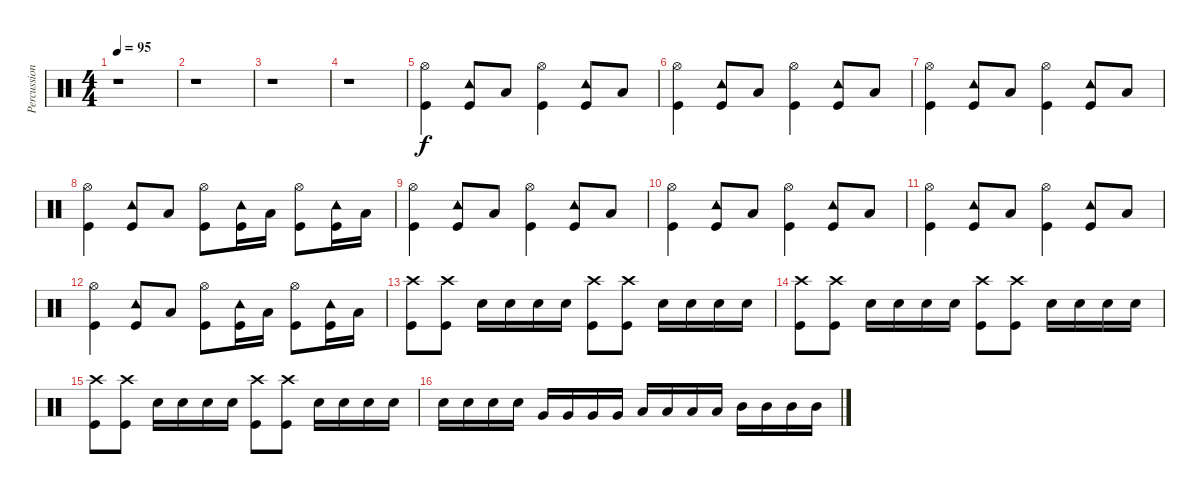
\track ("Percussion" "Percussion") {instrument percussion}
\staff {score}
\articulation defaults
\ts (4 4)
\tempo 95
\clef neutral
\ks c
r.1{dy f} |
r.1 |
r.1 |
r.1 |
("Hi-Hat (open)" "Kick (hit)").4 ("Tambourine (hit)" "Kick (hit)").8 "Low Tom (hit)".8 ("Hi-Hat (open)" "Kick (hit)").4 ("Tambourine (hit)" "Kick (hit)").8 "Low Tom (hit)".8 |
("Hi-Hat (open)" "Kick (hit)").4 ("Tambourine (hit)" "Kick (hit)").8 "Low Tom (hit)".8 ("Hi-Hat (open)" "Kick (hit)").4 ("Tambourine (hit)" "Kick (hit)").8 "Low Tom (hit)".8 |
("Hi-Hat (open)" "Kick (hit)").4 ("Tambourine (hit)" "Kick (hit)").8 "Low Tom (hit)".8 ("Hi-Hat (open)" "Kick (hit)").4 ("Tambourine (hit)" "Kick (hit)").8 "Low Tom (hit)".8 |
("Hi-Hat (open)" "Kick (hit)").4 ("Tambourine (hit)" "Kick (hit)").8 "Low Tom (hit)".8 ("Hi-Hat (open)" "Kick (hit)").8 ("Tambourine (hit)" "Kick (hit)").16 "Low Tom (hit)".16 ("Hi-Hat (open)" "Kick (hit)").8 ("Tambourine (hit)" "Kick (hit)").16 "Low Tom (hit)".16 |
("Hi-Hat (open)" "Kick (hit)").4 ("Tambourine (hit)" "Kick (hit)").8 "Low Tom (hit)".8 ("Hi-Hat (open)" "Kick (hit)").4 ("Tambourine (hit)" "Kick (hit)").8 "Low Tom (hit)".8 |
("Hi-Hat (open)" "Kick (hit)").4 ("Tambourine (hit)" "Kick (hit)").8 "Low Tom (hit)".8 ("Hi-Hat (open)" "Kick (hit)").4 ("Tambourine (hit)" "Kick (hit)").8 "Low Tom (hit)".8 |
("Hi-Hat (open)" "Kick (hit)").4 ("Tambourine (hit)" "Kick (hit)").8 "Low Tom (hit)".8 ("Hi-Hat (open)" "Kick (hit)").4 ("Tambourine (hit)" "Kick (hit)").8 "Low Tom (hit)".8 |
("Hi-Hat (open)" "Kick (hit)").4 ("Tambourine (hit)" "Kick (hit)").8 "Low Tom (hit)".8 ("Hi-Hat (open)" "Kick (hit)").8 ("Tambourine (hit)" "Kick (hit)").16 "Low Tom (hit)".16 ("Hi-Hat (open)" "Kick (hit)").8 ("Tambourine (hit)" "Kick (hit)").16 "Low Tom (hit)".16 |
("Crash high (hit)" "Kick (hit)").8 ("Crash high (hit)" "Kick (hit)").8 "Electric Snare (hit)".16 "Electric Snare (hit)".16 "Electric Snare (hit)".16 "Electric Snare (hit)".16 ("Crash high (hit)" "Kick (hit)").8 ("Crash high (hit)" "Kick (hit)").8 "Electric Snare (hit)".16 "Electric Snare (hit)".16 "Electric Snare (hit)".16 "Electric Snare (hit)".16 |
("Crash high (hit)" "Kick (hit)").8 ("Crash high (hit)" "Kick (hit)").8 "Electric Snare (hit)".16 "Electric Snare (hit)".16 "Electric Snare (hit)".16 "Electric Snare (hit)".16 ("Crash high (hit)" "Kick (hit)").8 ("Crash high (hit)" "Kick (hit)").8 "Electric Snare (hit)".16 "Electric Snare (hit)".16 "Electric Snare (hit)".16 "Electric Snare (hit)".16 |
("Crash high (hit)" "Kick (hit)").8 ("Crash high (hit)" "Kick (hit)").8 "Electric Snare (hit)".16 "Electric Snare (hit)".16 "Electric Snare (hit)".16 "Electric Snare (hit)".16 ("Crash high (hit)" "Kick (hit)").8 ("Crash high (hit)" "Kick (hit)").8 "Electric Snare (hit)".16 "Electric Snare (hit)".16 "Electric Snare (hit)".16 "Electric Snare (hit)".16 |
"Electric Snare (hit)".16 "Electric Snare (hit)".16 "Electric Snare (hit)".16 "Electric Snare (hit)".16 "Very Low Tom (hit)".16 "Very Low Tom (hit)".16 "Very Low Tom (hit)".16 "Very Low Tom (hit)".16 "Low Tom (hit)".16 "Low Tom (hit)".16 "Low Tom (hit)".16 "Low Tom (hit)".16 "Mid Tom (hit)".16 "Mid Tom (hit)".16 "Mid Tom (hit)".16 "Mid Tom (hit)".16
